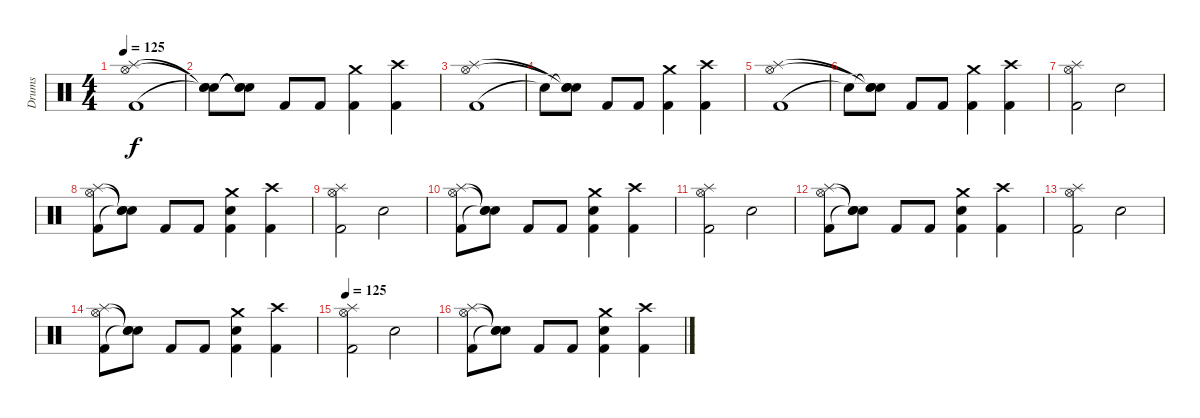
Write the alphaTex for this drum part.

\track ("Drums" "Drums") {instrument percussion}
\staff {score}
\articulation defaults
\ts (4 4)
\tempo 125
\clef neutral
\ks c
("Kick (hit) 2" "Splash (hit)" "Hi-Hat (open)").1{dy f} |
("Snare (hit)"{t} "Snare (hit)"{t} "Snare (hit)"{t}).8 ("Snare (hit)"{t} "Snare (hit)"{t} "Snare (hit)"{t}).8 "Kick (hit) 2".8 "Kick (hit) 2".8 ("Crash medium (hit)" "Kick (hit) 2").4 ("Crash high (hit)" "Kick (hit) 2").4 |
("Kick (hit) 2" "Splash (hit)" "Hi-Hat (open)").1 |
"Snare (hit)"{t}.8 ("Snare (hit)"{t} "Snare (hit)"{t} "Snare (hit)"{t}).8 "Kick (hit) 2".8 "Kick (hit) 2".8 ("Crash medium (hit)" "Kick (hit) 2").4 ("Crash high (hit)" "Kick (hit) 2").4 |
("Kick (hit) 2" "Splash (hit)" "Hi-Hat (open)").1 |
"Snare (hit)"{t}.8 ("Snare (hit)"{t} "Snare (hit)"{t} "Snare (hit)"{t}).8 "Kick (hit) 2".8 "Kick (hit) 2".8 ("Crash medium (hit)" "Kick (hit) 2").4 ("Crash high (hit)" "Kick (hit) 2").4 |
("Kick (hit) 2" "Splash (hit)" "Hi-Hat (open)").2 "Snare (hit) 2".2 |
("Kick (hit) 2" "Splash (hit)" "Hi-Hat (open)").8 ("Snare (hit)"{t} "Snare (hit)"{t} "Snare (hit) 2"{t}).8 "Kick (hit) 2".8 "Kick (hit) 2".8 ("Snare (hit) 2" "Crash medium (hit)" "Kick (hit) 2").4 ("Crash high (hit)" "Kick (hit) 2").4 |
("Kick (hit) 2" "Splash (hit)" "Hi-Hat (open)").2 "Snare (hit) 2".2 |
("Kick (hit) 2" "Splash (hit)" "Hi-Hat (open)").8 ("Snare (hit)"{t} "Snare (hit)"{t} "Snare (hit) 2"{t}).8 "Kick (hit) 2".8 "Kick (hit) 2".8 ("Snare (hit) 2" "Crash medium (hit)" "Kick (hit) 2").4 ("Crash high (hit)" "Kick (hit) 2").4 |
("Kick (hit) 2" "Splash (hit)" "Hi-Hat (open)").2 "Snare (hit) 2".2 |
("Kick (hit) 2" "Splash (hit)" "Hi-Hat (open)").8 ("Snare (hit)"{t} "Snare (hit)"{t} "Snare (hit) 2"{t}).8 "Kick (hit) 2".8 "Kick (hit) 2".8 ("Snare (hit) 2" "Crash medium (hit)" "Kick (hit) 2").4 ("Crash high (hit)" "Kick (hit) 2").4 |
("Kick (hit) 2" "Splash (hit)" "Hi-Hat (open)").2 "Snare (hit) 2".2 |
("Kick (hit) 2" "Splash (hit)" "Hi-Hat (open)").8 ("Snare (hit)"{t} "Snare (hit)"{t} "Snare (hit) 2"{t}).8 "Kick (hit) 2".8 "Kick (hit) 2".8 ("Snare (hit) 2" "Crash medium (hit)" "Kick (hit) 2").4 ("Crash high (hit)" "Kick (hit) 2").4 |
\tempo 125
("Kick (hit) 2" "Splash (hit)" "Hi-Hat (open)").2 "Snare (hit) 2".2 |
("Kick (hit) 2" "Splash (hit)" "Hi-Hat (open)").8 ("Snare (hit)"{t} "Snare (hit)"{t} "Snare (hit) 2"{t}).8 "Kick (hit) 2".8 "Kick (hit) 2".8 ("Snare (hit) 2" "Crash medium (hit)" "Kick (hit) 2").4 ("Crash high (hit)" "Kick (hit) 2").4
